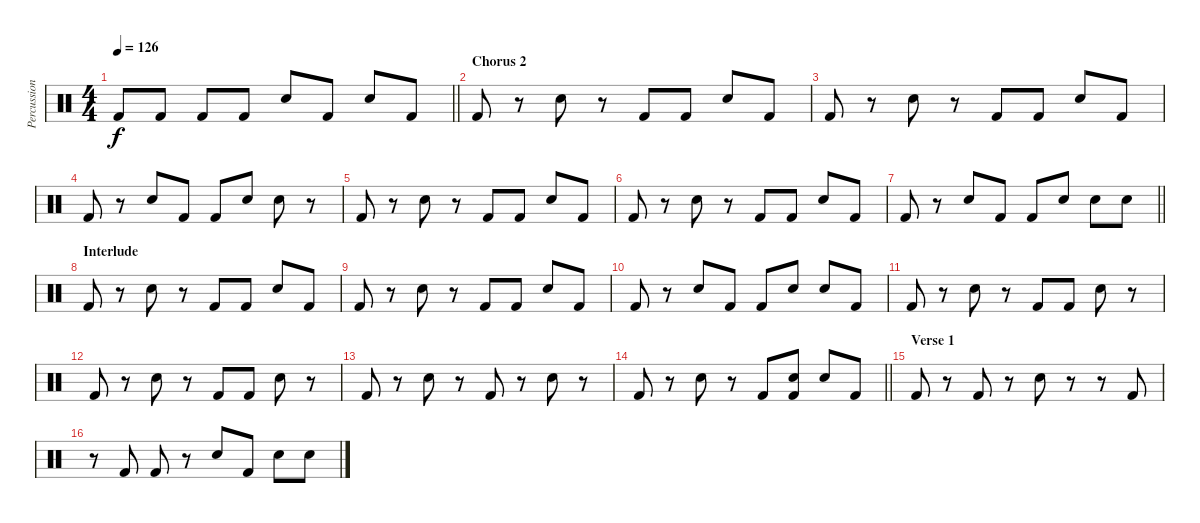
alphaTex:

\track ("Percussion" "Percussion") {instrument percussion}
\staff {score}
\articulation defaults
\ts (4 4)
\tempo 126
\clef neutral
\barLineRight lightlight
\ks c "Kick (hit) 2".8{dy f} "Kick (hit) 2".8 "Kick (hit) 2".8 "Kick (hit) 2".8 "Snare (hit) 2".8 "Kick (hit) 2".8 "Snare (hit) 2".8 "Kick (hit) 2".8
|
\section ("" "Chorus 2")
"Kick (hit) 2".8 r.8 "Snare (hit) 2".8 r.8 "Kick (hit) 2".8 "Kick (hit) 2".8 "Snare (hit) 2".8 "Kick (hit) 2".8 |
"Kick (hit) 2".8 r.8 "Snare (hit) 2".8 r.8 "Kick (hit) 2".8 "Kick (hit) 2".8 "Snare (hit) 2".8 "Kick (hit) 2".8 |
"Kick (hit) 2".8 r.8 "Snare (hit) 2".8 "Kick (hit) 2".8 "Kick (hit) 2".8 "Snare (hit) 2".8 "Snare (hit) 2".8 r.8 |
"Kick (hit) 2".8 r.8 "Snare (hit) 2".8 r.8 "Kick (hit) 2".8 "Kick (hit) 2".8 "Snare (hit) 2".8 "Kick (hit) 2".8 |
"Kick (hit) 2".8 r.8 "Snare (hit) 2".8 r.8 "Kick (hit) 2".8 "Kick (hit) 2".8 "Snare (hit) 2".8 "Kick (hit) 2".8 |
\barLineRight lightlight "Kick (hit) 2".8
r.8 "Snare (hit) 2".8 "Kick (hit) 2".8 "Kick (hit) 2".8 "Snare (hit) 2".8 "Snare (hit) 2".8 "Snare (hit) 2".8 |
\section ("" "Interlude")
"Kick (hit) 2".8 r.8 "Snare (hit) 2".8 r.8 "Kick (hit) 2".8 "Kick (hit) 2".8 "Snare (hit) 2".8 "Kick (hit) 2".8 |
"Kick (hit) 2".8 r.8 "Snare (hit) 2".8 r.8 "Kick (hit) 2".8 "Kick (hit) 2".8 "Snare (hit) 2".8 "Kick (hit) 2".8 |
"Kick (hit) 2".8 r.8 "Snare (hit) 2".8 "Kick (hit) 2".8 "Kick (hit) 2".8 "Snare (hit) 2".8 "Snare (hit) 2".8 "Kick (hit) 2".8 |
"Kick (hit) 2".8 r.8 "Snare (hit) 2".8 r.8 "Kick (hit) 2".8 "Kick (hit) 2".8 "Snare (hit) 2".8 r.8 |
"Kick (hit) 2".8 r.8 "Snare (hit) 2".8 r.8 "Kick (hit) 2".8 "Kick (hit) 2".8 "Snare (hit) 2".8 r.8 |
"Kick (hit) 2".8 r.8 "Snare (hit) 2".8 r.8 "Kick (hit) 2".8 r.8 "Snare (hit) 2".8 r.8 |
\barLineRight lightlight "Kick (hit) 2".8
r.8 "Snare (hit) 2".8 r.8 "Kick (hit) 2".8 ("Snare (hit) 2" "Kick (hit) 2").8 "Snare (hit) 2".8 "Kick (hit) 2".8 |
\section ("" "Verse 1")
"Kick (hit) 2".8 r.8 "Kick (hit) 2".8 r.8 "Snare (hit) 2".8 r.8 r.8 "Kick (hit) 2".8 |
r.8 "Kick (hit) 2".8 "Kick (hit) 2".8 r.8 "Snare (hit) 2".8 "Kick (hit) 2".8 "Snare (hit) 2".8 "Snare (hit) 2".8
